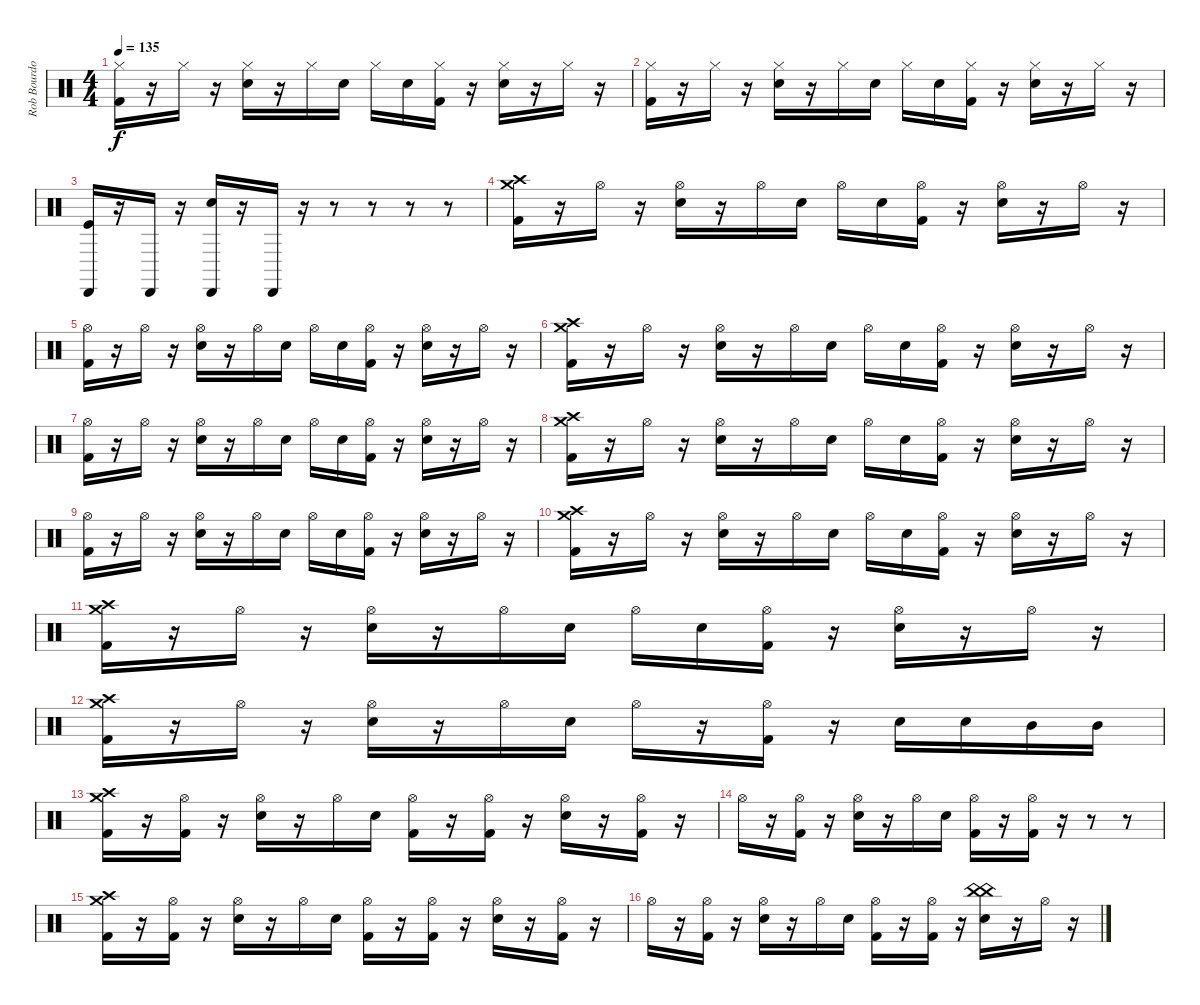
\track ("Rob Bourdon (Drums)" "Rob Bourdo") {instrument percussion}
\staff {score}
\articulation defaults
\ts (4 4)
\tempo 135
\clef neutral
\ks c
("Hi-Hat (closed)" "Kick (hit) 2").16{dy f} r.16 "Hi-Hat (closed)".16 r.16 ("Hi-Hat (closed)" "Electric Snare (hit)").16 r.16 "Hi-Hat (closed)".16 "Electric Snare (hit)".16 "Hi-Hat (closed)".16 "Electric Snare (hit)".16 ("Hi-Hat (closed)" "Kick (hit) 2").16 r.16 ("Hi-Hat (closed)" "Electric Snare (hit)").16 r.16 "Hi-Hat (closed)".16 r.16 |
("Hi-Hat (closed)" "Kick (hit) 2").16 r.16 "Hi-Hat (closed)".16 r.16 ("Hi-Hat (closed)" "Electric Snare (hit)").16 r.16 "Hi-Hat (closed)".16 "Electric Snare (hit)".16 "Hi-Hat (closed)".16 "Electric Snare (hit)".16 ("Hi-Hat (closed)" "Kick (hit) 2").16 r.16 ("Hi-Hat (closed)" "Electric Snare (hit)").16 r.16 "Hi-Hat (closed)".16 r.16 |
("Cabasa (hit)" "Kick (hit)").16 r.16 "Cabasa (hit)".16 r.16 ("Cabasa (hit)" "Hand Clap (hit)").16 r.16 "Cabasa (hit)".16 r.16 r.8 r.8 r.8 r.8 |
("Crash high (hit)" "Crash medium (hit)" "Kick (hit) 2").16 r.16 "Hi-Hat (open)".16 r.16 ("Hi-Hat (open)" "Electric Snare (hit)").16 r.16 "Hi-Hat (open)".16 "Electric Snare (hit)".16 "Hi-Hat (open)".16 "Electric Snare (hit)".16 ("Hi-Hat (open)" "Kick (hit) 2").16 r.16 ("Hi-Hat (open)" "Electric Snare (hit)").16 r.16 "Hi-Hat (open)".16 r.16 |
("Hi-Hat (open)" "Kick (hit) 2").16 r.16 "Hi-Hat (open)".16 r.16 ("Hi-Hat (open)" "Electric Snare (hit)").16 r.16 "Hi-Hat (open)".16 "Electric Snare (hit)".16 "Hi-Hat (open)".16 "Electric Snare (hit)".16 ("Hi-Hat (open)" "Kick (hit) 2").16 r.16 ("Hi-Hat (open)" "Electric Snare (hit)").16 r.16 "Hi-Hat (open)".16 r.16 |
("Crash high (hit)" "Crash medium (hit)" "Kick (hit) 2").16 r.16 "Hi-Hat (open)".16 r.16 ("Hi-Hat (open)" "Electric Snare (hit)").16 r.16 "Hi-Hat (open)".16 "Electric Snare (hit)".16 "Hi-Hat (open)".16 "Electric Snare (hit)".16 ("Hi-Hat (open)" "Kick (hit) 2").16 r.16 ("Hi-Hat (open)" "Electric Snare (hit)").16 r.16 "Hi-Hat (open)".16 r.16 |
("Hi-Hat (open)" "Kick (hit) 2").16 r.16 "Hi-Hat (open)".16 r.16 ("Hi-Hat (open)" "Electric Snare (hit)").16 r.16 "Hi-Hat (open)".16 "Electric Snare (hit)".16 "Hi-Hat (open)".16 "Electric Snare (hit)".16 ("Hi-Hat (open)" "Kick (hit) 2").16 r.16 ("Hi-Hat (open)" "Electric Snare (hit)").16 r.16 "Hi-Hat (open)".16 r.16 |
("Crash high (hit)" "Crash medium (hit)" "Kick (hit) 2").16 r.16 "Hi-Hat (open)".16 r.16 ("Hi-Hat (open)" "Electric Snare (hit)").16 r.16 "Hi-Hat (open)".16 "Electric Snare (hit)".16 "Hi-Hat (open)".16 "Electric Snare (hit)".16 ("Hi-Hat (open)" "Kick (hit) 2").16 r.16 ("Hi-Hat (open)" "Electric Snare (hit)").16 r.16 "Hi-Hat (open)".16 r.16 |
("Hi-Hat (open)" "Kick (hit) 2").16 r.16 "Hi-Hat (open)".16 r.16 ("Hi-Hat (open)" "Electric Snare (hit)").16 r.16 "Hi-Hat (open)".16 "Electric Snare (hit)".16 "Hi-Hat (open)".16 "Electric Snare (hit)".16 ("Hi-Hat (open)" "Kick (hit) 2").16 r.16 ("Hi-Hat (open)" "Electric Snare (hit)").16 r.16 "Hi-Hat (open)".16 r.16 |
("Crash high (hit)" "Crash medium (hit)" "Kick (hit) 2").16 r.16 "Hi-Hat (open)".16 r.16 ("Hi-Hat (open)" "Electric Snare (hit)").16 r.16 "Hi-Hat (open)".16 "Electric Snare (hit)".16 "Hi-Hat (open)".16 "Electric Snare (hit)".16 ("Hi-Hat (open)" "Kick (hit) 2").16 r.16 ("Hi-Hat (open)" "Electric Snare (hit)").16 r.16 "Hi-Hat (open)".16 r.16 |
("Crash high (hit)" "Crash medium (hit)" "Kick (hit) 2").16 r.16 "Hi-Hat (open)".16 r.16 ("Hi-Hat (open)" "Electric Snare (hit)").16 r.16 "Hi-Hat (open)".16 "Electric Snare (hit)".16 "Hi-Hat (open)".16 "Electric Snare (hit)".16 ("Hi-Hat (open)" "Kick (hit) 2").16 r.16 ("Hi-Hat (open)" "Electric Snare (hit)").16 r.16 "Hi-Hat (open)".16 r.16 |
("Crash high (hit)" "Crash medium (hit)" "Kick (hit) 2").16 r.16 "Hi-Hat (open)".16 r.16 ("Hi-Hat (open)" "Electric Snare (hit)").16 r.16 "Hi-Hat (open)".16 "Electric Snare (hit)".16 "Hi-Hat (open)".16 r.16 ("Hi-Hat (open)" "Kick (hit) 2").16 r.16 "Electric Snare (hit)".16 "Electric Snare (hit)".16 "Mid Tom (hit)".16 "Mid Tom (hit)".16 |
("Crash high (hit)" "Crash medium (hit)" "Kick (hit) 2").16 r.16 ("Hi-Hat (open)" "Kick (hit) 2").16 r.16 ("Hi-Hat (open)" "Electric Snare (hit)").16 r.16 "Hi-Hat (open)".16 "Electric Snare (hit)".16 ("Hi-Hat (open)" "Kick (hit) 2").16 r.16 ("Hi-Hat (open)" "Kick (hit) 2").16 r.16 ("Hi-Hat (open)" "Electric Snare (hit)").16 r.16 ("Hi-Hat (open)" "Kick (hit) 2").16 r.16 |
"Hi-Hat (open)".16 r.16 ("Hi-Hat (open)" "Kick (hit) 2").16 r.16 ("Hi-Hat (open)" "Electric Snare (hit)").16 r.16 "Hi-Hat (open)".16 "Electric Snare (hit)".16 ("Hi-Hat (open)" "Kick (hit) 2").16 r.16 ("Hi-Hat (open)" "Kick (hit) 2").16 r.16 r.8 r.8 |
("Crash high (hit)" "Crash medium (hit)" "Kick (hit) 2").16 r.16 ("Hi-Hat (open)" "Kick (hit) 2").16 r.16 ("Hi-Hat (open)" "Electric Snare (hit)").16 r.16 "Hi-Hat (open)".16 "Electric Snare (hit)".16 ("Hi-Hat (open)" "Kick (hit) 2").16 r.16 ("Hi-Hat (open)" "Kick (hit) 2").16 r.16 ("Hi-Hat (open)" "Electric Snare (hit)").16 r.16 ("Hi-Hat (open)" "Kick (hit) 2").16 r.16 |
"Hi-Hat (open)".16 r.16 ("Hi-Hat (open)" "Kick (hit) 2").16 r.16 ("Hi-Hat (open)" "Electric Snare (hit)").16 r.16 "Hi-Hat (open)".16 "Electric Snare (hit)".16 ("Hi-Hat (open)" "Kick (hit) 2").16 r.16 ("Hi-Hat (open)" "Kick (hit) 2").16 r.16 ("China (hit)" "China (hit)" "Electric Snare (hit)").16 r.16 "Hi-Hat (open)".16 r.16
